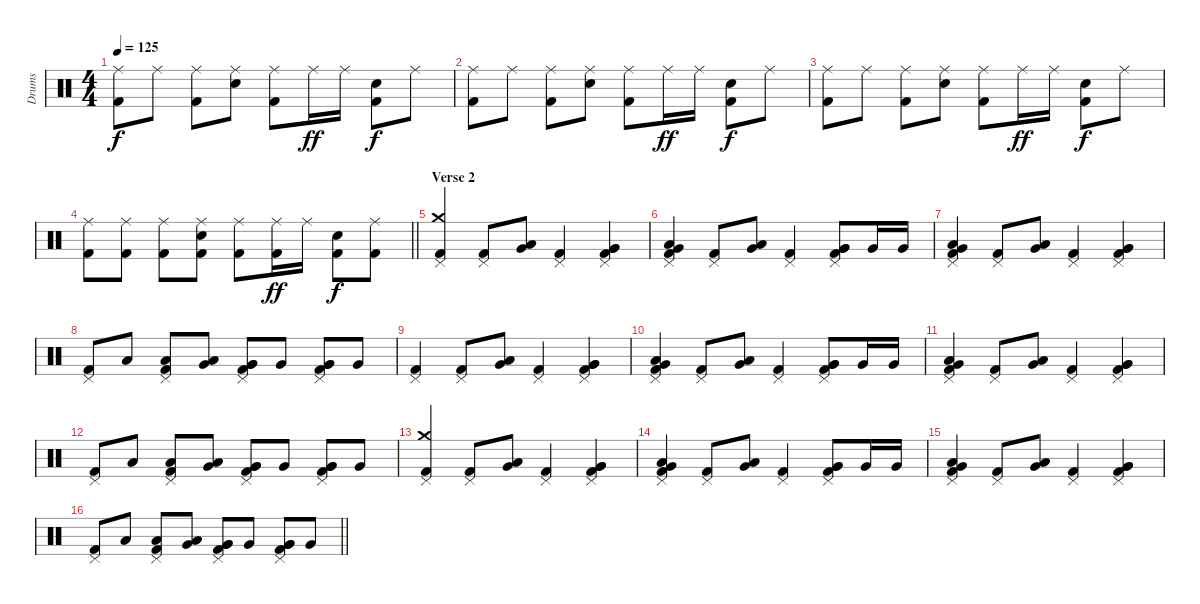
\track ("Drums" "Drums") {instrument percussion}
\staff {score}
\articulation defaults
\ts (4 4)
\tempo 125
\clef neutral
\ks c
("Ride (middle)" "Kick (hit) 2").8{dy f} "Ride (middle)".8 ("Ride (middle)" "Kick (hit) 2").8 ("Ride (middle)" "Electric Snare (hit)").8 ("Ride (middle)" "Kick (hit) 2").8 "Ride (middle)".16{dy ff} "Ride (middle)".16 ("Electric Snare (hit)" "Kick (hit) 2").8{dy f} "Ride (middle)".8 |
("Ride (middle)" "Kick (hit) 2").8 "Ride (middle)".8 ("Ride (middle)" "Kick (hit) 2").8 ("Ride (middle)" "Electric Snare (hit)").8 ("Ride (middle)" "Kick (hit) 2").8 "Ride (middle)".16{dy ff} "Ride (middle)".16 ("Electric Snare (hit)" "Kick (hit) 2").8{dy f} "Ride (middle)".8 |
("Ride (middle)" "Kick (hit) 2").8 "Ride (middle)".8 ("Ride (middle)" "Kick (hit) 2").8 ("Ride (middle)" "Electric Snare (hit)").8 ("Ride (middle)" "Kick (hit) 2").8 "Ride (middle)".16{dy ff} "Ride (middle)".16 ("Electric Snare (hit)" "Kick (hit) 2").8{dy f} "Ride (middle)".8 |
\barLineRight lightlight
("Ride (middle)" "Kick (hit) 2").8 ("Ride (middle)" "Kick (hit) 2").8 ("Ride (middle)" "Kick (hit) 2").8 ("Ride (middle)" "Electric Snare (hit)" "Kick (hit) 2").8 ("Ride (middle)" "Kick (hit) 2").8 ("Ride (middle)" "Kick (hit) 2").16{dy ff} "Ride (middle)".16 ("Electric Snare (hit)" "Kick (hit) 2").8{dy f} ("Ride (middle)" "Kick (hit) 2").8 |
\section ("" "Verse 2")
("Crash medium (hit)" "Pedal Hi-Hat (hit)" "Kick (hit) 2").4 ("Pedal Hi-Hat (hit)" "Kick (hit) 2").8 ("Low Tom (hit)" "Very Low Tom (hit)").8 ("Pedal Hi-Hat (hit)" "Kick (hit) 2").4 ("Pedal Hi-Hat (hit)" "Very Low Tom (hit)" "Very Low Tom (hit)" "Kick (hit) 2").4 |
("Pedal Hi-Hat (hit)" "Low Tom (hit)" "Very Low Tom (hit)" "Kick (hit) 2").4 ("Pedal Hi-Hat (hit)" "Kick (hit) 2").8 ("Low Tom (hit)" "Very Low Tom (hit)").8 ("Pedal Hi-Hat (hit)" "Kick (hit) 2").4 ("Pedal Hi-Hat (hit)" "Very Low Tom (hit)" "Very Low Tom (hit)" "Kick (hit) 2").8 "Very Low Tom (hit)".16 "Very Low Tom (hit)".16 |
("Pedal Hi-Hat (hit)" "Low Tom (hit)" "Very Low Tom (hit)" "Kick (hit) 2").4 ("Pedal Hi-Hat (hit)" "Kick (hit) 2").8 ("Low Tom (hit)" "Very Low Tom (hit)").8 ("Pedal Hi-Hat (hit)" "Kick (hit) 2").4 ("Pedal Hi-Hat (hit)" "Very Low Tom (hit)" "Very Low Tom (hit)" "Kick (hit) 2").4 |
("Pedal Hi-Hat (hit)" "Kick (hit) 2").8 "Low Tom (hit)".8 ("Pedal Hi-Hat (hit)" "Low Tom (hit)" "Kick (hit) 2").8 ("Low Tom (hit)" "Very Low Tom (hit)").8 ("Pedal Hi-Hat (hit)" "Very Low Tom (hit)" "Very Low Tom (hit)" "Kick (hit) 2").8 "Very Low Tom (hit)".8 ("Pedal Hi-Hat (hit)" "Very Low Tom (hit)" "Very Low Tom (hit)" "Kick (hit) 2").8 "Very Low Tom (hit)".8 |
("Pedal Hi-Hat (hit)" "Kick (hit) 2").4 ("Pedal Hi-Hat (hit)" "Kick (hit) 2").8 ("Low Tom (hit)" "Very Low Tom (hit)").8 ("Pedal Hi-Hat (hit)" "Kick (hit) 2").4 ("Pedal Hi-Hat (hit)" "Very Low Tom (hit)" "Very Low Tom (hit)" "Kick (hit) 2").4 |
("Pedal Hi-Hat (hit)" "Low Tom (hit)" "Very Low Tom (hit)" "Kick (hit) 2").4 ("Pedal Hi-Hat (hit)" "Kick (hit) 2").8 ("Low Tom (hit)" "Very Low Tom (hit)").8 ("Pedal Hi-Hat (hit)" "Kick (hit) 2").4 ("Pedal Hi-Hat (hit)" "Very Low Tom (hit)" "Very Low Tom (hit)" "Kick (hit) 2").8 "Very Low Tom (hit)".16 "Very Low Tom (hit)".16 |
("Pedal Hi-Hat (hit)" "Low Tom (hit)" "Very Low Tom (hit)" "Kick (hit) 2").4 ("Pedal Hi-Hat (hit)" "Kick (hit) 2").8 ("Low Tom (hit)" "Very Low Tom (hit)").8 ("Pedal Hi-Hat (hit)" "Kick (hit) 2").4 ("Pedal Hi-Hat (hit)" "Very Low Tom (hit)" "Very Low Tom (hit)" "Kick (hit) 2").4 |
("Pedal Hi-Hat (hit)" "Kick (hit) 2").8 "Low Tom (hit)".8 ("Pedal Hi-Hat (hit)" "Low Tom (hit)" "Kick (hit) 2").8 ("Low Tom (hit)" "Very Low Tom (hit)").8 ("Pedal Hi-Hat (hit)" "Very Low Tom (hit)" "Very Low Tom (hit)" "Kick (hit) 2").8 "Very Low Tom (hit)".8 ("Pedal Hi-Hat (hit)" "Very Low Tom (hit)" "Very Low Tom (hit)" "Kick (hit) 2").8 "Very Low Tom (hit)".8 |
("Crash medium (hit)" "Pedal Hi-Hat (hit)" "Kick (hit) 2").4 ("Pedal Hi-Hat (hit)" "Kick (hit) 2").8 ("Low Tom (hit)" "Very Low Tom (hit)").8 ("Pedal Hi-Hat (hit)" "Kick (hit) 2").4 ("Pedal Hi-Hat (hit)" "Very Low Tom (hit)" "Very Low Tom (hit)" "Kick (hit) 2").4 |
("Pedal Hi-Hat (hit)" "Low Tom (hit)" "Very Low Tom (hit)" "Kick (hit) 2").4 ("Pedal Hi-Hat (hit)" "Kick (hit) 2").8 ("Low Tom (hit)" "Very Low Tom (hit)").8 ("Pedal Hi-Hat (hit)" "Kick (hit) 2").4 ("Pedal Hi-Hat (hit)" "Very Low Tom (hit)" "Very Low Tom (hit)" "Kick (hit) 2").8 "Very Low Tom (hit)".16 "Very Low Tom (hit)".16 |
("Pedal Hi-Hat (hit)" "Low Tom (hit)" "Very Low Tom (hit)" "Kick (hit) 2").4 ("Pedal Hi-Hat (hit)" "Kick (hit) 2").8 ("Low Tom (hit)" "Very Low Tom (hit)").8 ("Pedal Hi-Hat (hit)" "Kick (hit) 2").4 ("Pedal Hi-Hat (hit)" "Very Low Tom (hit)" "Very Low Tom (hit)" "Kick (hit) 2").4 |
\barLineRight lightlight
("Pedal Hi-Hat (hit)" "Kick (hit) 2").8 "Low Tom (hit)".8 ("Pedal Hi-Hat (hit)" "Low Tom (hit)" "Kick (hit) 2").8 ("Low Tom (hit)" "Very Low Tom (hit)").8 ("Pedal Hi-Hat (hit)" "Very Low Tom (hit)" "Very Low Tom (hit)" "Kick (hit) 2").8 "Very Low Tom (hit)".8 ("Pedal Hi-Hat (hit)" "Very Low Tom (hit)" "Very Low Tom (hit)" "Kick (hit) 2").8 "Very Low Tom (hit)".8
